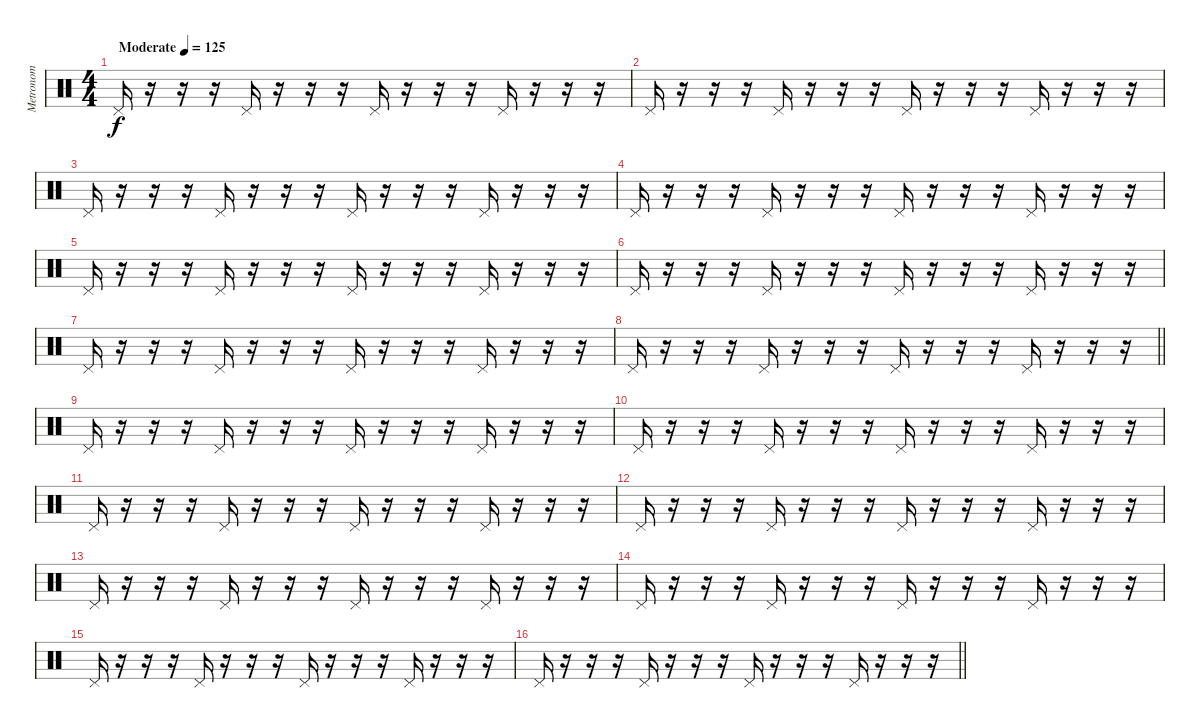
\track ("Metronom" "Metronom") {instrument percussion}
\staff {score}
\articulation defaults
\ts (4 4)
\tempo (125 "Moderate")
\clef neutral
\ks c "Pedal Hi-Hat (hit)".16{dy f}
r.16 r.16 r.16 "Pedal Hi-Hat (hit)".16 r.16 r.16 r.16 "Pedal Hi-Hat (hit)".16 r.16 r.16 r.16 "Pedal Hi-Hat (hit)".16 r.16 r.16 r.16 |
"Pedal Hi-Hat (hit)".16 r.16 r.16 r.16 "Pedal Hi-Hat (hit)".16 r.16 r.16 r.16 "Pedal Hi-Hat (hit)".16 r.16 r.16 r.16 "Pedal Hi-Hat (hit)".16 r.16 r.16 r.16 |
"Pedal Hi-Hat (hit)".16 r.16 r.16 r.16 "Pedal Hi-Hat (hit)".16 r.16 r.16 r.16 "Pedal Hi-Hat (hit)".16 r.16 r.16 r.16 "Pedal Hi-Hat (hit)".16 r.16 r.16 r.16 |
"Pedal Hi-Hat (hit)".16 r.16 r.16 r.16 "Pedal Hi-Hat (hit)".16 r.16 r.16 r.16 "Pedal Hi-Hat (hit)".16 r.16 r.16 r.16 "Pedal Hi-Hat (hit)".16 r.16 r.16 r.16 |
"Pedal Hi-Hat (hit)".16 r.16 r.16 r.16 "Pedal Hi-Hat (hit)".16 r.16 r.16 r.16 "Pedal Hi-Hat (hit)".16 r.16 r.16 r.16 "Pedal Hi-Hat (hit)".16 r.16 r.16 r.16 |
"Pedal Hi-Hat (hit)".16 r.16 r.16 r.16 "Pedal Hi-Hat (hit)".16 r.16 r.16 r.16 "Pedal Hi-Hat (hit)".16 r.16 r.16 r.16 "Pedal Hi-Hat (hit)".16 r.16 r.16 r.16 |
"Pedal Hi-Hat (hit)".16 r.16 r.16 r.16 "Pedal Hi-Hat (hit)".16 r.16 r.16 r.16 "Pedal Hi-Hat (hit)".16 r.16 r.16 r.16 "Pedal Hi-Hat (hit)".16 r.16 r.16 r.16 |
\barLineRight lightlight "Pedal Hi-Hat (hit)".16
r.16 r.16 r.16 "Pedal Hi-Hat (hit)".16 r.16 r.16 r.16 "Pedal Hi-Hat (hit)".16 r.16 r.16 r.16 "Pedal Hi-Hat (hit)".16 r.16 r.16 r.16 |
\section ("" "")
"Pedal Hi-Hat (hit)".16 r.16 r.16 r.16 "Pedal Hi-Hat (hit)".16 r.16 r.16 r.16 "Pedal Hi-Hat (hit)".16 r.16 r.16 r.16 "Pedal Hi-Hat (hit)".16 r.16 r.16 r.16 |
"Pedal Hi-Hat (hit)".16 r.16 r.16 r.16 "Pedal Hi-Hat (hit)".16 r.16 r.16 r.16 "Pedal Hi-Hat (hit)".16 r.16 r.16 r.16 "Pedal Hi-Hat (hit)".16 r.16 r.16 r.16 |
"Pedal Hi-Hat (hit)".16 r.16 r.16 r.16 "Pedal Hi-Hat (hit)".16 r.16 r.16 r.16 "Pedal Hi-Hat (hit)".16 r.16 r.16 r.16 "Pedal Hi-Hat (hit)".16 r.16 r.16 r.16 |
"Pedal Hi-Hat (hit)".16 r.16 r.16 r.16 "Pedal Hi-Hat (hit)".16 r.16 r.16 r.16 "Pedal Hi-Hat (hit)".16 r.16 r.16 r.16 "Pedal Hi-Hat (hit)".16 r.16 r.16 r.16 |
"Pedal Hi-Hat (hit)".16 r.16 r.16 r.16 "Pedal Hi-Hat (hit)".16 r.16 r.16 r.16 "Pedal Hi-Hat (hit)".16 r.16 r.16 r.16 "Pedal Hi-Hat (hit)".16 r.16 r.16 r.16 |
"Pedal Hi-Hat (hit)".16 r.16 r.16 r.16 "Pedal Hi-Hat (hit)".16 r.16 r.16 r.16 "Pedal Hi-Hat (hit)".16 r.16 r.16 r.16 "Pedal Hi-Hat (hit)".16 r.16 r.16 r.16 |
"Pedal Hi-Hat (hit)".16 r.16 r.16 r.16 "Pedal Hi-Hat (hit)".16 r.16 r.16 r.16 "Pedal Hi-Hat (hit)".16 r.16 r.16 r.16 "Pedal Hi-Hat (hit)".16 r.16 r.16 r.16 |
\barLineRight lightlight "Pedal Hi-Hat (hit)".16
r.16 r.16 r.16 "Pedal Hi-Hat (hit)".16 r.16 r.16 r.16 "Pedal Hi-Hat (hit)".16 r.16 r.16 r.16 "Pedal Hi-Hat (hit)".16 r.16 r.16 r.16
